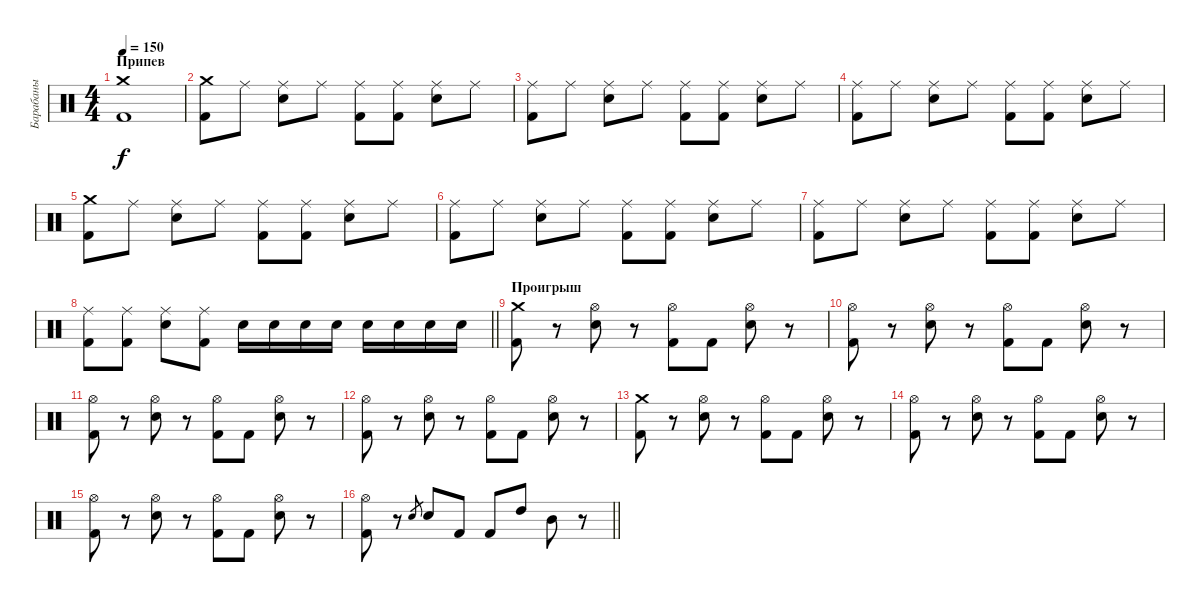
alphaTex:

\track ("Барабаны" "Барабаны") {instrument percussion}
\staff {score}
\articulation defaults
\ts (4 4)
\section ("" "Припев")
\tempo 150
\clef neutral
\ks c
("Crash medium (hit)" "Kick (hit) 2").1{dy f} |
("Crash medium (hit)" "Kick (hit) 2").8 "Ride (middle)".8 ("Ride (middle)" "Electric Snare (hit)").8 "Ride (middle)".8 ("Ride (middle)" "Kick (hit) 2").8 ("Ride (middle)" "Kick (hit) 2").8 ("Ride (middle)" "Electric Snare (hit)").8 "Ride (middle)".8 |
("Ride (middle)" "Kick (hit) 2").8 "Ride (middle)".8 ("Ride (middle)" "Electric Snare (hit)").8 "Ride (middle)".8 ("Ride (middle)" "Kick (hit) 2").8 ("Ride (middle)" "Kick (hit) 2").8 ("Ride (middle)" "Electric Snare (hit)").8 "Ride (middle)".8 |
("Ride (middle)" "Kick (hit) 2").8 "Ride (middle)".8 ("Ride (middle)" "Electric Snare (hit)").8 "Ride (middle)".8 ("Ride (middle)" "Kick (hit) 2").8 ("Ride (middle)" "Kick (hit) 2").8 ("Ride (middle)" "Electric Snare (hit)").8 "Ride (middle)".8 |
("Crash medium (hit)" "Kick (hit) 2").8 "Ride (middle)".8 ("Ride (middle)" "Electric Snare (hit)").8 "Ride (middle)".8 ("Ride (middle)" "Kick (hit) 2").8 ("Ride (middle)" "Kick (hit) 2").8 ("Ride (middle)" "Electric Snare (hit)").8 "Ride (middle)".8 |
("Ride (middle)" "Kick (hit) 2").8 "Ride (middle)".8 ("Ride (middle)" "Electric Snare (hit)").8 "Ride (middle)".8 ("Ride (middle)" "Kick (hit) 2").8 ("Ride (middle)" "Kick (hit) 2").8 ("Ride (middle)" "Electric Snare (hit)").8 "Ride (middle)".8 |
("Ride (middle)" "Kick (hit) 2").8 "Ride (middle)".8 ("Ride (middle)" "Electric Snare (hit)").8 "Ride (middle)".8 ("Ride (middle)" "Kick (hit) 2").8 ("Ride (middle)" "Kick (hit) 2").8 ("Ride (middle)" "Electric Snare (hit)").8 "Ride (middle)".8 |
\barLineRight lightlight
("Ride (middle)" "Kick (hit) 2").8 ("Ride (middle)" "Kick (hit) 2").8 ("Ride (middle)" "Electric Snare (hit)").8 ("Ride (middle)" "Kick (hit) 2").8 "Electric Snare (hit)".16 "Electric Snare (hit)".16 "Electric Snare (hit)".16 "Electric Snare (hit)".16 "Electric Snare (hit)".16 "Electric Snare (hit)".16 "Electric Snare (hit)".16 "Electric Snare (hit)".16 |
\section ("" "Проигрыш")
("Crash medium (hit)" "Kick (hit) 2").8 r.8 ("Hi-Hat (open)" "Electric Snare (hit)").8 r.8 ("Hi-Hat (open)" "Kick (hit) 2").8 "Kick (hit) 2".8 ("Hi-Hat (open)" "Electric Snare (hit)").8 r.8 |
("Hi-Hat (open)" "Kick (hit) 2").8 r.8 ("Hi-Hat (open)" "Electric Snare (hit)").8 r.8 ("Hi-Hat (open)" "Kick (hit) 2").8 "Kick (hit) 2".8 ("Hi-Hat (open)" "Electric Snare (hit)").8 r.8 |
("Hi-Hat (open)" "Kick (hit) 2").8 r.8 ("Hi-Hat (open)" "Electric Snare (hit)").8 r.8 ("Hi-Hat (open)" "Kick (hit) 2").8 "Kick (hit) 2".8 ("Hi-Hat (open)" "Electric Snare (hit)").8 r.8 |
("Hi-Hat (open)" "Kick (hit) 2").8 r.8 ("Hi-Hat (open)" "Electric Snare (hit)").8 r.8 ("Hi-Hat (open)" "Kick (hit) 2").8 "Kick (hit) 2".8 ("Hi-Hat (open)" "Electric Snare (hit)").8 r.8 |
("Crash medium (hit)" "Kick (hit) 2").8 r.8 ("Hi-Hat (open)" "Electric Snare (hit)").8 r.8 ("Hi-Hat (open)" "Kick (hit) 2").8 "Kick (hit) 2".8 ("Hi-Hat (open)" "Electric Snare (hit)").8 r.8 |
("Hi-Hat (open)" "Kick (hit) 2").8 r.8 ("Hi-Hat (open)" "Electric Snare (hit)").8 r.8 ("Hi-Hat (open)" "Kick (hit) 2").8 "Kick (hit) 2".8 ("Hi-Hat (open)" "Electric Snare (hit)").8 r.8 |
("Hi-Hat (open)" "Kick (hit) 2").8 r.8 ("Hi-Hat (open)" "Electric Snare (hit)").8 r.8 ("Hi-Hat (open)" "Kick (hit) 2").8 "Kick (hit) 2".8 ("Hi-Hat (open)" "Electric Snare (hit)").8 r.8 |
\barLineRight lightlight
("Hi-Hat (open)" "Kick (hit) 2").8 r.8 "Electric Snare (hit)".8{gr} "Electric Snare (hit)".8 "Kick (hit) 2".8 "Kick (hit) 2".8 "High Tom (hit)".8 "Mid Tom (hit)".8 r.8
